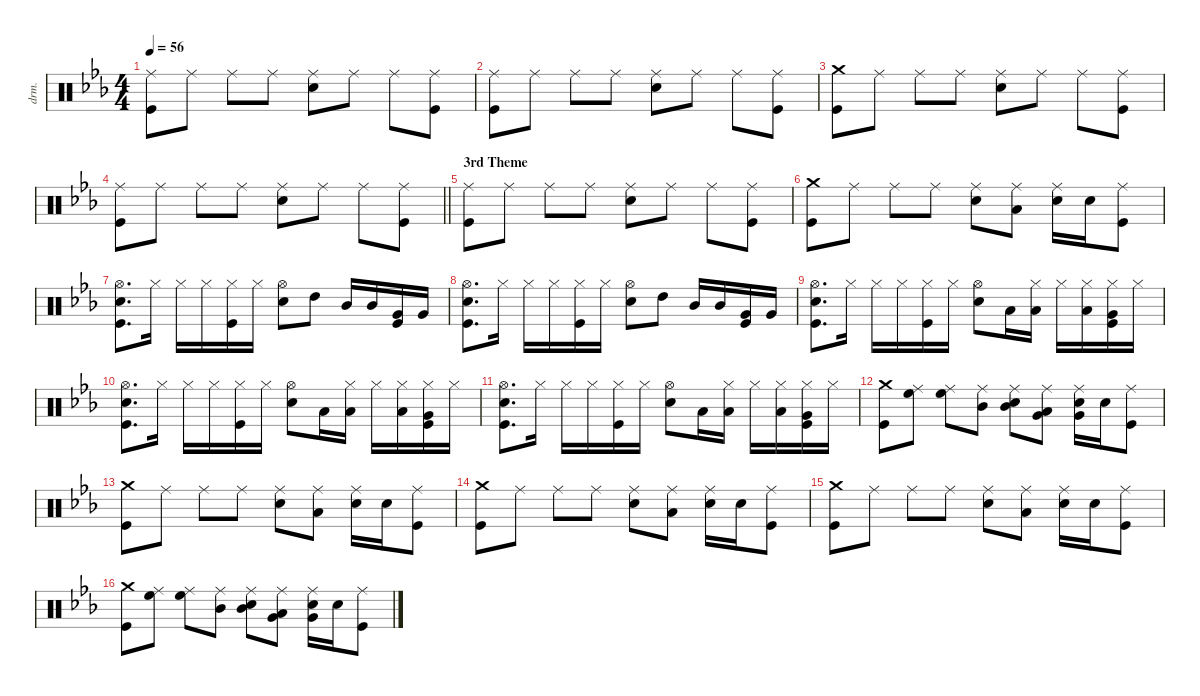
\defaultSystemsLayout 4
\hideDynamics
\bracketExtendMode groupsimilarinstruments
\otherSystemsTrackNameOrientation horizontal
\track ("Percussion" "drm.") {defaultSystemsLayout 4 instrument percussion}
\staff {score}
\articulation defaults
\ts (4 4)
\tempo 56
\clef neutral
\ks cminor
("Ride (middle)"{acc forcenatural} "Kick (hit)"{acc forcenatural}).8{dy f} "Ride (middle)"{acc forcenatural}.8 "Ride (middle)"{acc forcenatural}.8 "Ride (middle)"{acc forcenatural}.8 ("Snare (hit) 2"{acc forcenatural} "Ride (middle)"{acc forcenatural}).8 "Ride (middle)"{acc forcenatural}.8 "Ride (middle)"{acc forcenatural}.8 ("Kick (hit)"{acc forcenatural} "Ride (middle)"{acc forcenatural}).8 |
("Ride (middle)"{acc forcenatural} "Kick (hit)"{acc forcenatural}).8 "Ride (middle)"{acc forcenatural}.8 "Ride (middle)"{acc forcenatural}.8 "Ride (middle)"{acc forcenatural}.8 ("Snare (hit) 2"{acc forcenatural} "Ride (middle)"{acc forcenatural}).8 "Ride (middle)"{acc forcenatural}.8 "Ride (middle)"{acc forcenatural}.8 ("Kick (hit)"{acc forcenatural} "Ride (middle)"{acc forcenatural}).8 |
("Crash medium (hit)"{acc forcenatural} "Kick (hit)"{acc forcenatural}).8 "Ride (middle)"{acc forcenatural}.8 "Ride (middle)"{acc forcenatural}.8 "Ride (middle)"{acc forcenatural}.8 ("Snare (hit) 2"{acc forcenatural} "Ride (middle)"{acc forcenatural}).8 "Ride (middle)"{acc forcenatural}.8 "Ride (middle)"{acc forcenatural}.8 ("Kick (hit)"{acc forcenatural} "Ride (middle)"{acc forcenatural}).8 |
\barLineRight lightlight
("Ride (middle)"{acc forcenatural} "Kick (hit)"{acc forcenatural}).8 "Ride (middle)"{acc forcenatural}.8 "Ride (middle)"{acc forcenatural}.8 "Ride (middle)"{acc forcenatural}.8 ("Snare (hit) 2"{acc forcenatural} "Ride (middle)"{acc forcenatural}).8 "Ride (middle)"{acc forcenatural}.8 "Ride (middle)"{acc forcenatural}.8 ("Kick (hit)"{acc forcenatural} "Ride (middle)"{acc forcenatural}).8 |
\section ("" "3rd Theme")
("Ride (middle)"{acc forcenatural} "Kick (hit)"{acc forcenatural}).8 "Ride (middle)"{acc forcenatural}.8 "Ride (middle)"{acc forcenatural}.8 "Ride (middle)"{acc forcenatural}.8 ("Snare (hit) 2"{acc forcenatural} "Ride (middle)"{acc forcenatural}).8 "Ride (middle)"{acc forcenatural}.8 "Ride (middle)"{acc forcenatural}.8 ("Kick (hit)"{acc forcenatural} "Ride (middle)"{acc forcenatural}).8 |
("Crash medium (hit)"{acc forcenatural} "Kick (hit)"{acc forcenatural}).8 "Ride (middle)"{acc forcenatural}.8 "Ride (middle)"{acc forcenatural}.8 "Ride (middle)"{acc forcenatural}.8 ("Snare (hit) 2"{acc forcenatural} "Ride (middle)"{acc forcenatural}).8 ("Low Floor Tom (hit)"{acc forcenatural} "Ride (middle)"{acc forcenatural}).8 ("Snare (hit) 2"{acc forcenatural} "Ride (middle)"{acc forcenatural}).16 "Snare (hit) 2"{acc forcenatural}.16 ("Kick (hit)"{acc forcenatural} "Ride (middle)"{acc forcenatural}).8 |
("Hi-Hat (open)"{acc forcenatural} "Kick (hit)"{acc forcenatural} "Snare (hit) 2"{acc forcenatural}).8{d} "Hi-Hat (closed)"{acc forcenatural}.16 "Hi-Hat (closed)"{acc forcenatural}.16 "Hi-Hat (closed)"{acc forcenatural}.16 ("Kick (hit)"{acc forcenatural} "Hi-Hat (closed)"{acc forcenatural}).16 "Hi-Hat (closed)"{acc forcenatural}.16 ("Snare (hit) 2"{acc forcenatural} "Hi-Hat (open)"{acc forcenatural}).8 "High Tom (hit)"{acc forcenatural}.8 "Mid Tom (hit)"{acc forcenatural}.16 "Mid Tom (hit)"{acc forcenatural}.16 ("Very Low Tom (hit)"{acc forcenatural} "Kick (hit)"{acc forcenatural}).16 "Very Low Tom (hit)"{acc forcenatural}.16 |
("Hi-Hat (open)"{acc forcenatural} "Kick (hit)"{acc forcenatural} "Snare (hit) 2"{acc forcenatural}).8{d} "Hi-Hat (closed)"{acc forcenatural}.16 "Hi-Hat (closed)"{acc forcenatural}.16 "Hi-Hat (closed)"{acc forcenatural}.16 ("Kick (hit)"{acc forcenatural} "Hi-Hat (closed)"{acc forcenatural}).16 "Hi-Hat (closed)"{acc forcenatural}.16 ("Snare (hit) 2"{acc forcenatural} "Hi-Hat (open)"{acc forcenatural}).8 "High Tom (hit)"{acc forcenatural}.8 "Mid Tom (hit)"{acc forcenatural}.16 "Mid Tom (hit)"{acc forcenatural}.16 ("Very Low Tom (hit)"{acc forcenatural} "Kick (hit)"{acc forcenatural}).16 "Very Low Tom (hit)"{acc forcenatural}.16 |
("Hi-Hat (open)"{acc forcenatural} "Kick (hit)"{acc forcenatural} "Snare (hit) 2"{acc forcenatural}).8{d} "Hi-Hat (closed)"{acc forcenatural}.16 "Hi-Hat (closed)"{acc forcenatural}.16 "Hi-Hat (closed)"{acc forcenatural}.16 ("Kick (hit)"{acc forcenatural} "Hi-Hat (closed)"{acc forcenatural}).16 "Hi-Hat (closed)"{acc forcenatural}.16 ("Snare (hit) 2"{acc forcenatural} "Hi-Hat (open)"{acc forcenatural}).8 "Low Tom (hit)"{acc forcenatural}.16 ("Low Tom (hit)"{acc forcenatural} "Hi-Hat (closed)"{acc forcenatural}).16 "Hi-Hat (closed)"{acc forcenatural}.16 ("Low Tom (hit)"{acc forcenatural} "Hi-Hat (closed)"{acc forcenatural}).16 ("Very Low Tom (hit)"{acc forcenatural} "Kick (hit)"{acc forcenatural} "Hi-Hat (closed)"{acc forcenatural}).16 "Hi-Hat (closed)"{acc forcenatural}.16 |
("Hi-Hat (open)"{acc forcenatural} "Kick (hit)"{acc forcenatural} "Snare (hit) 2"{acc forcenatural}).8{d} "Hi-Hat (closed)"{acc forcenatural}.16 "Hi-Hat (closed)"{acc forcenatural}.16 "Hi-Hat (closed)"{acc forcenatural}.16 ("Kick (hit)"{acc forcenatural} "Hi-Hat (closed)"{acc forcenatural}).16 "Hi-Hat (closed)"{acc forcenatural}.16 ("Snare (hit) 2"{acc forcenatural} "Hi-Hat (open)"{acc forcenatural}).8 "Low Tom (hit)"{acc forcenatural}.16 ("Low Tom (hit)"{acc forcenatural} "Hi-Hat (closed)"{acc forcenatural}).16 "Hi-Hat (closed)"{acc forcenatural}.16 ("Low Tom (hit)"{acc forcenatural} "Hi-Hat (closed)"{acc forcenatural}).16 ("Very Low Tom (hit)"{acc forcenatural} "Kick (hit)"{acc forcenatural} "Hi-Hat (closed)"{acc forcenatural}).16 "Hi-Hat (closed)"{acc forcenatural}.16 |
("Hi-Hat (open)"{acc forcenatural} "Kick (hit)"{acc forcenatural} "Snare (hit) 2"{acc forcenatural}).8{d} "Hi-Hat (closed)"{acc forcenatural}.16 "Hi-Hat (closed)"{acc forcenatural}.16 "Hi-Hat (closed)"{acc forcenatural}.16 ("Kick (hit)"{acc forcenatural} "Hi-Hat (closed)"{acc forcenatural}).16 "Hi-Hat (closed)"{acc forcenatural}.16 ("Snare (hit) 2"{acc forcenatural} "Hi-Hat (open)"{acc forcenatural}).8 "Low Tom (hit)"{acc forcenatural}.16 ("Low Tom (hit)"{acc forcenatural} "Hi-Hat (closed)"{acc forcenatural}).16 "Hi-Hat (closed)"{acc forcenatural}.16 ("Low Tom (hit)"{acc forcenatural} "Hi-Hat (closed)"{acc forcenatural}).16 ("Very Low Tom (hit)"{acc forcenatural} "Kick (hit)"{acc forcenatural} "Hi-Hat (closed)"{acc forcenatural}).16 "Hi-Hat (closed)"{acc forcenatural}.16 |
("Crash medium (hit)"{acc forcenatural} "Kick (hit)"{acc forcenatural}).8 ("High Floor Tom (hit)"{acc forcenatural} "Ride (middle)"{acc forcenatural}).8 ("High Floor Tom (hit)"{acc forcenatural} "Ride (middle)"{acc forcenatural}).8 ("Mid Tom (hit)"{acc forcenatural} "Ride (middle)"{acc forcenatural}).8 ("Mid Tom (hit)"{acc forcenatural} "Snare (hit) 2"{acc forcenatural} "Ride (middle)"{acc forcenatural}).8 ("Very Low Tom (hit)"{acc forcenatural} "Low Floor Tom (hit)"{acc forcenatural} "Ride (middle)"{acc forcenatural}).8 ("Very Low Tom (hit)"{acc forcenatural} "Snare (hit) 2"{acc forcenatural} "Ride (middle)"{acc forcenatural}).16 "Snare (hit) 2"{acc forcenatural}.16 ("Kick (hit)"{acc forcenatural} "Ride (middle)"{acc forcenatural}).8 |
("Crash medium (hit)"{acc forcenatural} "Kick (hit)"{acc forcenatural}).8 "Ride (middle)"{acc forcenatural}.8 "Ride (middle)"{acc forcenatural}.8 "Ride (middle)"{acc forcenatural}.8 ("Snare (hit) 2"{acc forcenatural} "Ride (middle)"{acc forcenatural}).8 ("Low Floor Tom (hit)"{acc forcenatural} "Ride (middle)"{acc forcenatural}).8 ("Snare (hit) 2"{acc forcenatural} "Ride (middle)"{acc forcenatural}).16 "Snare (hit) 2"{acc forcenatural}.16 ("Kick (hit)"{acc forcenatural} "Ride (middle)"{acc forcenatural}).8 |
("Crash medium (hit)"{acc forcenatural} "Kick (hit)"{acc forcenatural}).8 "Ride (middle)"{acc forcenatural}.8 "Ride (middle)"{acc forcenatural}.8 "Ride (middle)"{acc forcenatural}.8 ("Snare (hit) 2"{acc forcenatural} "Ride (middle)"{acc forcenatural}).8 ("Low Floor Tom (hit)"{acc forcenatural} "Ride (middle)"{acc forcenatural}).8 ("Snare (hit) 2"{acc forcenatural} "Ride (middle)"{acc forcenatural}).16 "Snare (hit) 2"{acc forcenatural}.16 ("Kick (hit)"{acc forcenatural} "Ride (middle)"{acc forcenatural}).8 |
("Crash medium (hit)"{acc forcenatural} "Kick (hit)"{acc forcenatural}).8 "Ride (middle)"{acc forcenatural}.8 "Ride (middle)"{acc forcenatural}.8 "Ride (middle)"{acc forcenatural}.8 ("Snare (hit) 2"{acc forcenatural} "Ride (middle)"{acc forcenatural}).8 ("Low Floor Tom (hit)"{acc forcenatural} "Ride (middle)"{acc forcenatural}).8 ("Snare (hit) 2"{acc forcenatural} "Ride (middle)"{acc forcenatural}).16 "Snare (hit) 2"{acc forcenatural}.16 ("Kick (hit)"{acc forcenatural} "Ride (middle)"{acc forcenatural}).8 |
("Crash medium (hit)"{acc forcenatural} "Kick (hit)"{acc forcenatural}).8 ("High Floor Tom (hit)"{acc forcenatural} "Ride (middle)"{acc forcenatural}).8 ("High Floor Tom (hit)"{acc forcenatural} "Ride (middle)"{acc forcenatural}).8 ("Mid Tom (hit)"{acc forcenatural} "Ride (middle)"{acc forcenatural}).8 ("Mid Tom (hit)"{acc forcenatural} "Snare (hit) 2"{acc forcenatural} "Ride (middle)"{acc forcenatural}).8 ("Very Low Tom (hit)"{acc forcenatural} "Low Floor Tom (hit)"{acc forcenatural} "Ride (middle)"{acc forcenatural}).8 ("Very Low Tom (hit)"{acc forcenatural} "Snare (hit) 2"{acc forcenatural} "Ride (middle)"{acc forcenatural}).16 "Snare (hit) 2"{acc forcenatural}.16 ("Kick (hit)"{acc forcenatural} "Ride (middle)"{acc forcenatural}).8
